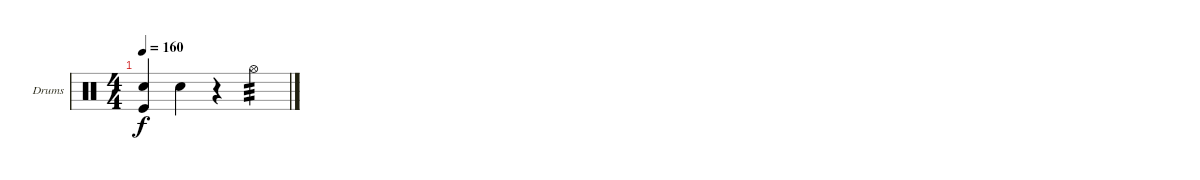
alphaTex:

\defaultSystemsLayout 4
\bracketExtendMode groupsimilarinstruments
\firstSystemTrackNameOrientation horizontal
\otherSystemsTrackNameOrientation horizontal
\track ("Drumkit" "Drums") {instrument percussion}
\staff {score}
\articulation defaults
\ts (4 4)
\tempo 160
\clef neutral
\ks c
("Kick (hit)" "Snare (hit) 2").4{dy f} "Snare (hit) 2".4 r.4 "Hi-Hat (open)".4{tp 3}
